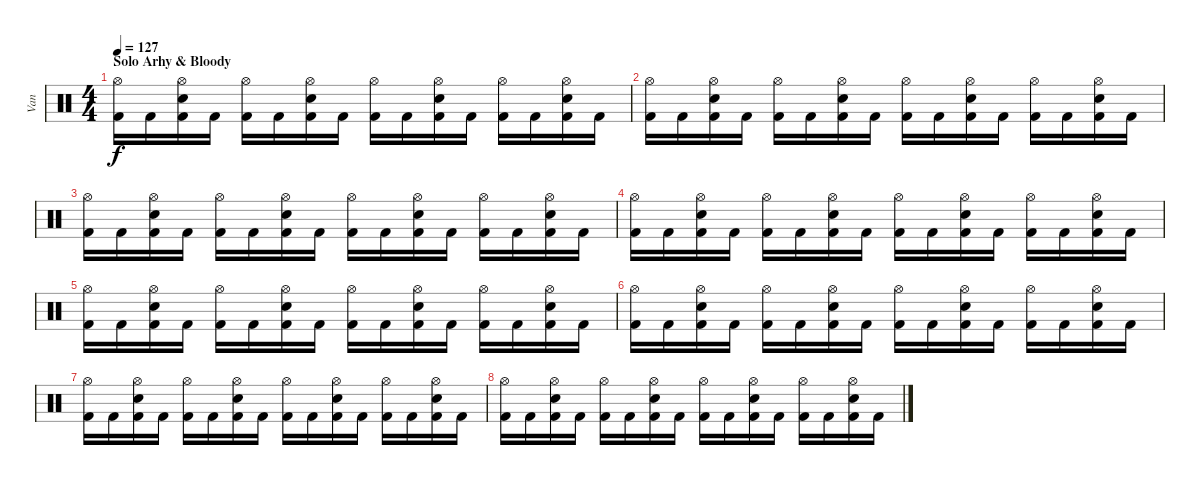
\track ("Van" "Van") {instrument percussion}
\staff {score}
\articulation defaults
\ts (4 4)
\section ("" "Solo Arhy & Bloody")
\tempo 127
\clef neutral
\ks c
("Kick (hit) 2" "Hi-Hat (open)").16{dy f} "Kick (hit) 2".16 ("Kick (hit) 2" "Hi-Hat (open)" "Electric Snare (hit)").16 "Kick (hit) 2".16 ("Kick (hit) 2" "Hi-Hat (open)").16 "Kick (hit) 2".16 ("Kick (hit) 2" "Hi-Hat (open)" "Electric Snare (hit)").16 "Kick (hit) 2".16 ("Kick (hit) 2" "Hi-Hat (open)").16 "Kick (hit) 2".16 ("Kick (hit) 2" "Hi-Hat (open)" "Electric Snare (hit)").16 "Kick (hit) 2".16 ("Kick (hit) 2" "Hi-Hat (open)").16 "Kick (hit) 2".16 ("Kick (hit) 2" "Hi-Hat (open)" "Electric Snare (hit)").16 "Kick (hit) 2".16 |
("Kick (hit) 2" "Hi-Hat (open)").16 "Kick (hit) 2".16 ("Kick (hit) 2" "Hi-Hat (open)" "Electric Snare (hit)").16 "Kick (hit) 2".16 ("Kick (hit) 2" "Hi-Hat (open)").16 "Kick (hit) 2".16 ("Kick (hit) 2" "Hi-Hat (open)" "Electric Snare (hit)").16 "Kick (hit) 2".16 ("Kick (hit) 2" "Hi-Hat (open)").16 "Kick (hit) 2".16 ("Kick (hit) 2" "Hi-Hat (open)" "Electric Snare (hit)").16 "Kick (hit) 2".16 ("Kick (hit) 2" "Hi-Hat (open)").16 "Kick (hit) 2".16 ("Kick (hit) 2" "Hi-Hat (open)" "Electric Snare (hit)").16 "Kick (hit) 2".16 |
("Kick (hit) 2" "Hi-Hat (open)").16 "Kick (hit) 2".16 ("Kick (hit) 2" "Hi-Hat (open)" "Electric Snare (hit)").16 "Kick (hit) 2".16 ("Kick (hit) 2" "Hi-Hat (open)").16 "Kick (hit) 2".16 ("Kick (hit) 2" "Hi-Hat (open)" "Electric Snare (hit)").16 "Kick (hit) 2".16 ("Kick (hit) 2" "Hi-Hat (open)").16 "Kick (hit) 2".16 ("Kick (hit) 2" "Hi-Hat (open)" "Electric Snare (hit)").16 "Kick (hit) 2".16 ("Kick (hit) 2" "Hi-Hat (open)").16 "Kick (hit) 2".16 ("Kick (hit) 2" "Hi-Hat (open)" "Electric Snare (hit)").16 "Kick (hit) 2".16 |
("Kick (hit) 2" "Hi-Hat (open)").16 "Kick (hit) 2".16 ("Kick (hit) 2" "Hi-Hat (open)" "Electric Snare (hit)").16 "Kick (hit) 2".16 ("Kick (hit) 2" "Hi-Hat (open)").16 "Kick (hit) 2".16 ("Kick (hit) 2" "Hi-Hat (open)" "Electric Snare (hit)").16 "Kick (hit) 2".16 ("Kick (hit) 2" "Hi-Hat (open)").16 "Kick (hit) 2".16 ("Kick (hit) 2" "Hi-Hat (open)" "Electric Snare (hit)").16 "Kick (hit) 2".16 ("Kick (hit) 2" "Hi-Hat (open)").16 "Kick (hit) 2".16 ("Kick (hit) 2" "Hi-Hat (open)" "Electric Snare (hit)").16 "Kick (hit) 2".16 |
("Kick (hit) 2" "Hi-Hat (open)").16 "Kick (hit) 2".16 ("Kick (hit) 2" "Hi-Hat (open)" "Electric Snare (hit)").16 "Kick (hit) 2".16 ("Kick (hit) 2" "Hi-Hat (open)").16 "Kick (hit) 2".16 ("Kick (hit) 2" "Hi-Hat (open)" "Electric Snare (hit)").16 "Kick (hit) 2".16 ("Kick (hit) 2" "Hi-Hat (open)").16 "Kick (hit) 2".16 ("Kick (hit) 2" "Hi-Hat (open)" "Electric Snare (hit)").16 "Kick (hit) 2".16 ("Kick (hit) 2" "Hi-Hat (open)").16 "Kick (hit) 2".16 ("Kick (hit) 2" "Hi-Hat (open)" "Electric Snare (hit)").16 "Kick (hit) 2".16 |
("Kick (hit) 2" "Hi-Hat (open)").16 "Kick (hit) 2".16 ("Kick (hit) 2" "Hi-Hat (open)" "Electric Snare (hit)").16 "Kick (hit) 2".16 ("Kick (hit) 2" "Hi-Hat (open)").16 "Kick (hit) 2".16 ("Kick (hit) 2" "Hi-Hat (open)" "Electric Snare (hit)").16 "Kick (hit) 2".16 ("Kick (hit) 2" "Hi-Hat (open)").16 "Kick (hit) 2".16 ("Kick (hit) 2" "Hi-Hat (open)" "Electric Snare (hit)").16 "Kick (hit) 2".16 ("Kick (hit) 2" "Hi-Hat (open)").16 "Kick (hit) 2".16 ("Kick (hit) 2" "Hi-Hat (open)" "Electric Snare (hit)").16 "Kick (hit) 2".16 |
("Kick (hit) 2" "Hi-Hat (open)").16 "Kick (hit) 2".16 ("Kick (hit) 2" "Hi-Hat (open)" "Electric Snare (hit)").16 "Kick (hit) 2".16 ("Kick (hit) 2" "Hi-Hat (open)").16 "Kick (hit) 2".16 ("Kick (hit) 2" "Hi-Hat (open)" "Electric Snare (hit)").16 "Kick (hit) 2".16 ("Kick (hit) 2" "Hi-Hat (open)").16 "Kick (hit) 2".16 ("Kick (hit) 2" "Hi-Hat (open)" "Electric Snare (hit)").16 "Kick (hit) 2".16 ("Kick (hit) 2" "Hi-Hat (open)").16 "Kick (hit) 2".16 ("Kick (hit) 2" "Hi-Hat (open)" "Electric Snare (hit)").16 "Kick (hit) 2".16 |
("Kick (hit) 2" "Hi-Hat (open)").16 "Kick (hit) 2".16 ("Kick (hit) 2" "Hi-Hat (open)" "Electric Snare (hit)").16 "Kick (hit) 2".16 ("Kick (hit) 2" "Hi-Hat (open)").16 "Kick (hit) 2".16 ("Kick (hit) 2" "Hi-Hat (open)" "Electric Snare (hit)").16 "Kick (hit) 2".16 ("Kick (hit) 2" "Hi-Hat (open)").16 "Kick (hit) 2".16 ("Kick (hit) 2" "Hi-Hat (open)" "Electric Snare (hit)").16 "Kick (hit) 2".16 ("Kick (hit) 2" "Hi-Hat (open)").16 "Kick (hit) 2".16 ("Kick (hit) 2" "Hi-Hat (open)" "Electric Snare (hit)").16 "Kick (hit) 2".16
